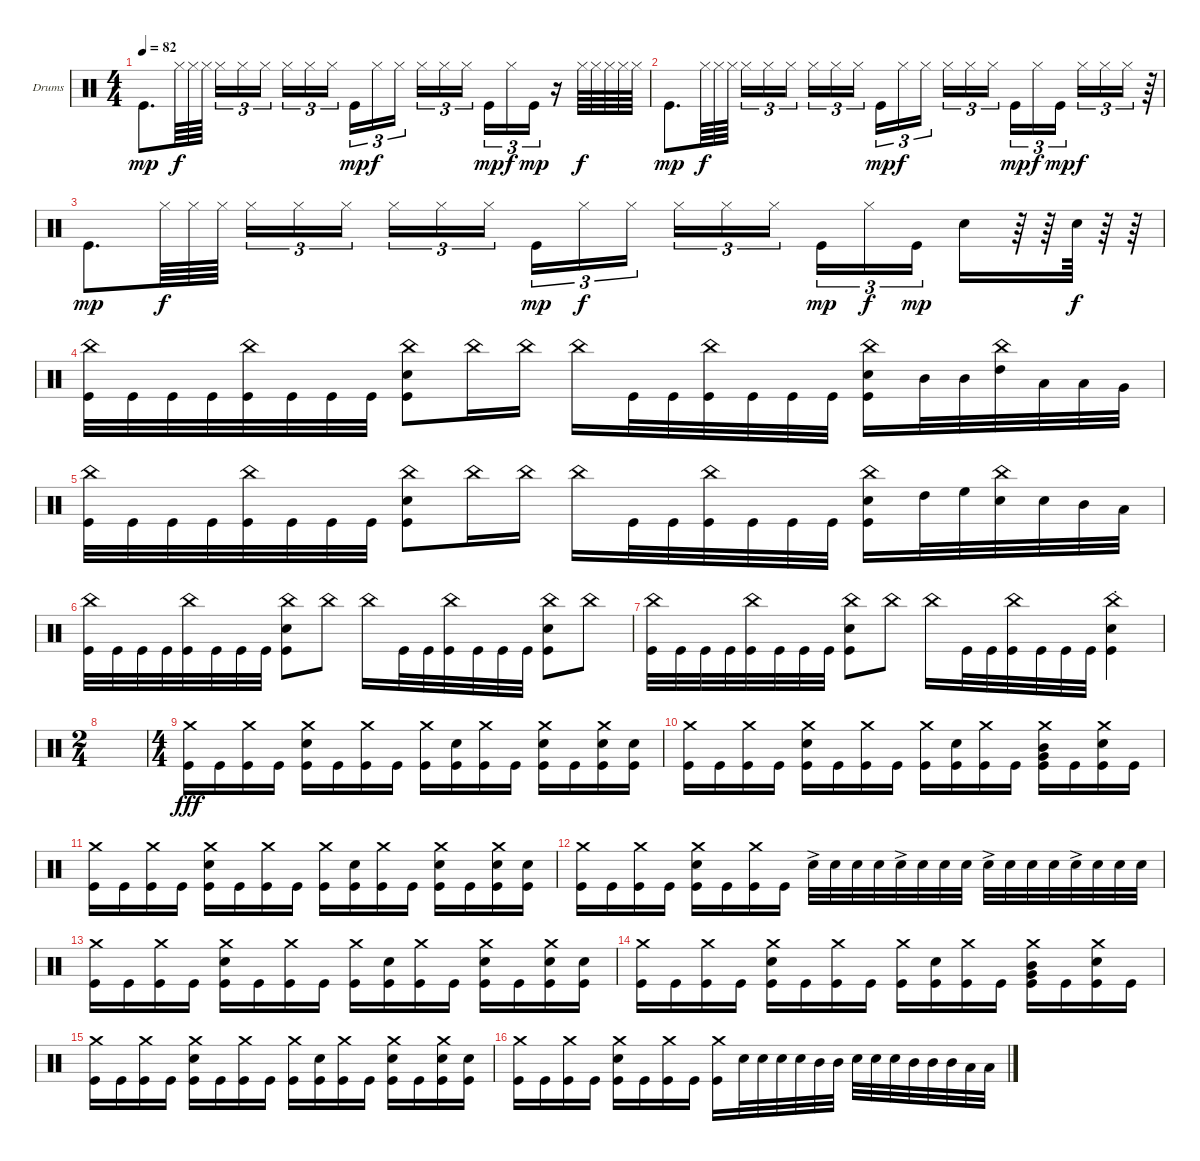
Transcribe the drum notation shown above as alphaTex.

\defaultSystemsLayout 4
\bracketExtendMode groupsimilarinstruments
\firstSystemTrackNameOrientation horizontal
\otherSystemsTrackNameOrientation horizontal
\track ("Drumkit" "Drums") {instrument percussion}
\staff {score}
\articulation defaults
\ts (4 4)
\tempo 82
\clef neutral
\ks c "Kick (hit)".8{d dy mp} "Hi-Hat (closed)".64{dy f} "Hi-Hat (closed)".64 "Hi-Hat (closed)".64 "Hi-Hat (closed)".16{tu (3 2)} "Hi-Hat (closed)".16{tu (3 2)} "Hi-Hat (closed)".16{tu (3 2)} "Hi-Hat (closed)".16{tu (3 2)} "Hi-Hat (closed)".16{tu (3 2)} "Hi-Hat (closed)".16{tu (3 2)} "Kick (hit)".16{tu (3 2) dy mp} "Hi-Hat (closed)".16{tu (3 2) dy f} "Hi-Hat (closed)".16{tu (3 2)} "Hi-Hat (closed)".16{tu (3 2)} "Hi-Hat (closed)".16{tu (3 2)} "Hi-Hat (closed)".16{tu (3 2)} "Kick (hit)".16{tu (3 2) dy mp} "Hi-Hat (closed)".16{tu (3 2) dy f} "Kick (hit)".16{tu (3 2) dy mp}
r.16 "Hi-Hat (closed)".64{dy f} "Hi-Hat (closed)".64 "Hi-Hat (closed)".64 "Hi-Hat (closed)".64 "Hi-Hat (closed)".64 |
"Kick (hit)".8{d dy mp} "Hi-Hat (closed)".64{dy f} "Hi-Hat (closed)".64 "Hi-Hat (closed)".64 "Hi-Hat (closed)".16{tu (3 2)} "Hi-Hat (closed)".16{tu (3 2)} "Hi-Hat (closed)".16{tu (3 2)} "Hi-Hat (closed)".16{tu (3 2)} "Hi-Hat (closed)".16{tu (3 2)} "Hi-Hat (closed)".16{tu (3 2)} "Kick (hit)".16{tu (3 2) dy mp} "Hi-Hat (closed)".16{tu (3 2) dy f} "Hi-Hat (closed)".16{tu (3 2)} "Hi-Hat (closed)".16{tu (3 2)} "Hi-Hat (closed)".16{tu (3 2)} "Hi-Hat (closed)".16{tu (3 2)} "Kick (hit)".16{tu (3 2) dy mp} "Hi-Hat (closed)".16{tu (3 2) dy f} "Kick (hit)".16{tu (3 2) dy mp} "Hi-Hat (closed)".16{tu (3 2) dy f} "Hi-Hat (closed)".16{tu (3 2)} "Hi-Hat (closed)".16{tu (3 2)} r.64 |
"Kick (hit)".8{d dy mp} "Hi-Hat (closed)".64{dy f} "Hi-Hat (closed)".64 "Hi-Hat (closed)".64 "Hi-Hat (closed)".16{tu (3 2)} "Hi-Hat (closed)".16{tu (3 2)} "Hi-Hat (closed)".16{tu (3 2)} "Hi-Hat (closed)".16{tu (3 2)} "Hi-Hat (closed)".16{tu (3 2)} "Hi-Hat (closed)".16{tu (3 2)} "Kick (hit)".16{tu (3 2) dy mp} "Hi-Hat (closed)".16{tu (3 2) dy f} "Hi-Hat (closed)".16{tu (3 2)} "Hi-Hat (closed)".16{tu (3 2)} "Hi-Hat (closed)".16{tu (3 2)} "Hi-Hat (closed)".16{tu (3 2)} "Kick (hit)".16{tu (3 2) dy mp} "Hi-Hat (closed)".16{tu (3 2) dy f} "Kick (hit)".16{tu (3 2) dy mp} "Snare (hit) 2".16 r.64 r.64 "Snare (hit) 2".64{dy f} r.64 r.64 |
("Kick (hit)" "China (hit)").32 "Kick (hit)".32 "Kick (hit)".32 "Kick (hit)".32 ("Kick (hit)" "China (hit)").32 "Kick (hit)".32 "Kick (hit)".32 "Kick (hit)".32 ("China (hit)" "Kick (hit)" "Snare (hit) 2").8 "China (hit)".16 "China (hit)".16 "China (hit)".16 "Kick (hit)".32 "Kick (hit)".32 ("China (hit)" "Kick (hit)").32 "Kick (hit)".32 "Kick (hit)".32 "Kick (hit)".32 ("China (hit)" "Kick (hit)" "Snare (hit) 2").16 "Mid Tom (hit)".32 "Mid Tom (hit)".32 ("China (hit)" "High Tom (hit)").32 "Low Tom (hit)".32 "Low Tom (hit)".32 "Very Low Tom (hit)".32 |
("Kick (hit)" "China (hit)").32 "Kick (hit)".32 "Kick (hit)".32 "Kick (hit)".32 ("Kick (hit)" "China (hit)").32 "Kick (hit)".32 "Kick (hit)".32 "Kick (hit)".32 ("China (hit)" "Kick (hit)" "Snare (hit) 2").8 "China (hit)".16 "China (hit)".16 "China (hit)".16 "Kick (hit)".32 "Kick (hit)".32 ("China (hit)" "Kick (hit)").32 "Kick (hit)".32 "Kick (hit)".32 "Kick (hit)".32 ("China (hit)" "Kick (hit)" "Snare (hit) 2").16 "High Tom (hit)".32 "High Floor Tom (hit)".32 ("China (hit)" "Snare (hit) 2").32 "Snare (hit) 2".32 "Mid Tom (hit)".32 "Low Tom (hit)".32 |
("Kick (hit)" "China (hit)").32 "Kick (hit)".32 "Kick (hit)".32 "Kick (hit)".32 ("Kick (hit)" "China (hit)").32 "Kick (hit)".32 "Kick (hit)".32 "Kick (hit)".32 ("China (hit)" "Kick (hit)" "Snare (hit) 2").8 "China (hit)".8 "China (hit)".16 "Kick (hit)".32 "Kick (hit)".32 ("China (hit)" "Kick (hit)").32 "Kick (hit)".32 "Kick (hit)".32 "Kick (hit)".32 ("China (hit)" "Kick (hit)" "Snare (hit) 2").8 "China (hit)".8 |
("Kick (hit)" "China (hit)").32 "Kick (hit)".32 "Kick (hit)".32 "Kick (hit)".32 ("Kick (hit)" "China (hit)").32 "Kick (hit)".32 "Kick (hit)".32 "Kick (hit)".32 ("China (hit)" "Kick (hit)" "Snare (hit) 2").8 "China (hit)".8 "China (hit)".16 "Kick (hit)".32 "Kick (hit)".32 ("China (hit)" "Kick (hit)").32 "Kick (hit)".32 "Kick (hit)".32 "Kick (hit)".32 ("China (hit)"{st} "Kick (hit)" "Snare (hit) 2").4 |
\ts (2 4)
|
\ts (4 4)
("Kick (hit)" "Crash medium (hit)").16{dy fff} "Kick (hit)".16 ("Kick (hit)" "Crash medium (hit)").16 "Kick (hit)".16 ("Snare (hit) 2" "Crash medium (hit)" "Kick (hit)").16 "Kick (hit)".16 ("Kick (hit)" "Crash medium (hit)").16 "Kick (hit)".16 ("Kick (hit)" "Crash medium (hit)").16 ("Snare (hit) 2" "Kick (hit)").16 ("Kick (hit)" "Crash medium (hit)").16 "Kick (hit)".16 ("Snare (hit) 2" "Crash medium (hit)" "Kick (hit)").16 "Kick (hit)".16 ("Snare (hit) 2" "Crash medium (hit)" "Kick (hit)").16 ("Snare (hit) 2" "Kick (hit)").16 |
("Kick (hit)" "Crash medium (hit)").16 "Kick (hit)".16 ("Kick (hit)" "Crash medium (hit)").16 "Kick (hit)".16 ("Snare (hit) 2" "Crash medium (hit)" "Kick (hit)").16 "Kick (hit)".16 ("Kick (hit)" "Crash medium (hit)").16 "Kick (hit)".16 ("Kick (hit)" "Crash medium (hit)").16 ("Snare (hit) 2" "Kick (hit)").16 ("Kick (hit)" "Crash medium (hit)").16 "Kick (hit)".16 ("Crash medium (hit)" "Mid Tom (hit)" "Very Low Tom (hit)" "Kick (hit)").16 "Kick (hit)".16 ("Snare (hit) 2" "Crash medium (hit)" "Kick (hit)").16 "Kick (hit)".16 |
("Kick (hit)" "Crash medium (hit)").16 "Kick (hit)".16 ("Kick (hit)" "Crash medium (hit)").16 "Kick (hit)".16 ("Snare (hit) 2" "Crash medium (hit)" "Kick (hit)").16 "Kick (hit)".16 ("Kick (hit)" "Crash medium (hit)").16 "Kick (hit)".16 ("Kick (hit)" "Crash medium (hit)").16 ("Snare (hit) 2" "Kick (hit)").16 ("Kick (hit)" "Crash medium (hit)").16 "Kick (hit)".16 ("Snare (hit) 2" "Crash medium (hit)" "Kick (hit)").16 "Kick (hit)".16 ("Snare (hit) 2" "Crash medium (hit)" "Kick (hit)").16 ("Snare (hit) 2" "Kick (hit)").16 |
("Kick (hit)" "Crash medium (hit)").16 "Kick (hit)".16 ("Kick (hit)" "Crash medium (hit)").16 "Kick (hit)".16 ("Snare (hit) 2" "Crash medium (hit)" "Kick (hit)").16 "Kick (hit)".16 ("Kick (hit)" "Crash medium (hit)").16 "Kick (hit)".16 "Snare (hit) 2"{ac}.32 "Snare (hit) 2".32 "Snare (hit) 2".32 "Snare (hit) 2".32 "Snare (hit) 2"{ac}.32 "Snare (hit) 2".32 "Snare (hit) 2".32 "Snare (hit) 2".32 "Snare (hit) 2"{ac}.32 "Snare (hit) 2".32 "Snare (hit) 2".32 "Snare (hit) 2".32 "Snare (hit) 2"{ac}.32 "Snare (hit) 2".32 "Snare (hit) 2".32 "Snare (hit) 2".32 |
("Kick (hit)" "Crash medium (hit)").16 "Kick (hit)".16 ("Kick (hit)" "Crash medium (hit)").16 "Kick (hit)".16 ("Snare (hit) 2" "Crash medium (hit)" "Kick (hit)").16 "Kick (hit)".16 ("Kick (hit)" "Crash medium (hit)").16 "Kick (hit)".16 ("Kick (hit)" "Crash medium (hit)").16 ("Snare (hit) 2" "Kick (hit)").16 ("Kick (hit)" "Crash medium (hit)").16 "Kick (hit)".16 ("Snare (hit) 2" "Crash medium (hit)" "Kick (hit)").16 "Kick (hit)".16 ("Snare (hit) 2" "Crash medium (hit)" "Kick (hit)").16 ("Snare (hit) 2" "Kick (hit)").16 |
("Kick (hit)" "Crash medium (hit)").16 "Kick (hit)".16 ("Kick (hit)" "Crash medium (hit)").16 "Kick (hit)".16 ("Snare (hit) 2" "Crash medium (hit)" "Kick (hit)").16 "Kick (hit)".16 ("Kick (hit)" "Crash medium (hit)").16 "Kick (hit)".16 ("Kick (hit)" "Crash medium (hit)").16 ("Snare (hit) 2" "Kick (hit)").16 ("Kick (hit)" "Crash medium (hit)").16 "Kick (hit)".16 ("Crash medium (hit)" "Mid Tom (hit)" "Very Low Tom (hit)" "Kick (hit)").16 "Kick (hit)".16 ("Snare (hit) 2" "Crash medium (hit)" "Kick (hit)").16 "Kick (hit)".16 |
("Kick (hit)" "Crash medium (hit)").16 "Kick (hit)".16 ("Kick (hit)" "Crash medium (hit)").16 "Kick (hit)".16 ("Snare (hit) 2" "Crash medium (hit)" "Kick (hit)").16 "Kick (hit)".16 ("Kick (hit)" "Crash medium (hit)").16 "Kick (hit)".16 ("Kick (hit)" "Crash medium (hit)").16 ("Snare (hit) 2" "Kick (hit)").16 ("Kick (hit)" "Crash medium (hit)").16 "Kick (hit)".16 ("Snare (hit) 2" "Crash medium (hit)" "Kick (hit)").16 "Kick (hit)".16 ("Snare (hit) 2" "Crash medium (hit)" "Kick (hit)").16 ("Snare (hit) 2" "Kick (hit)").16 |
("Kick (hit)" "Crash medium (hit)").16 "Kick (hit)".16 ("Kick (hit)" "Crash medium (hit)").16 "Kick (hit)".16 ("Snare (hit) 2" "Crash medium (hit)" "Kick (hit)").16 "Kick (hit)".16 ("Kick (hit)" "Crash medium (hit)").16 "Kick (hit)".16 ("Kick (hit)" "Crash medium (hit)").16 "Snare (hit) 2".32 "Snare (hit) 2".32 "Snare (hit) 2".32 "Snare (hit) 2".32 "Mid Tom (hit)".32 "Mid Tom (hit)".32 "Snare (hit) 2".32 "Snare (hit) 2".32 "Snare (hit) 2".32 "Mid Tom (hit)".32 "Mid Tom (hit)".32 "Mid Tom (hit)".32 "Low Tom (hit)".32 "Low Tom (hit)".32
